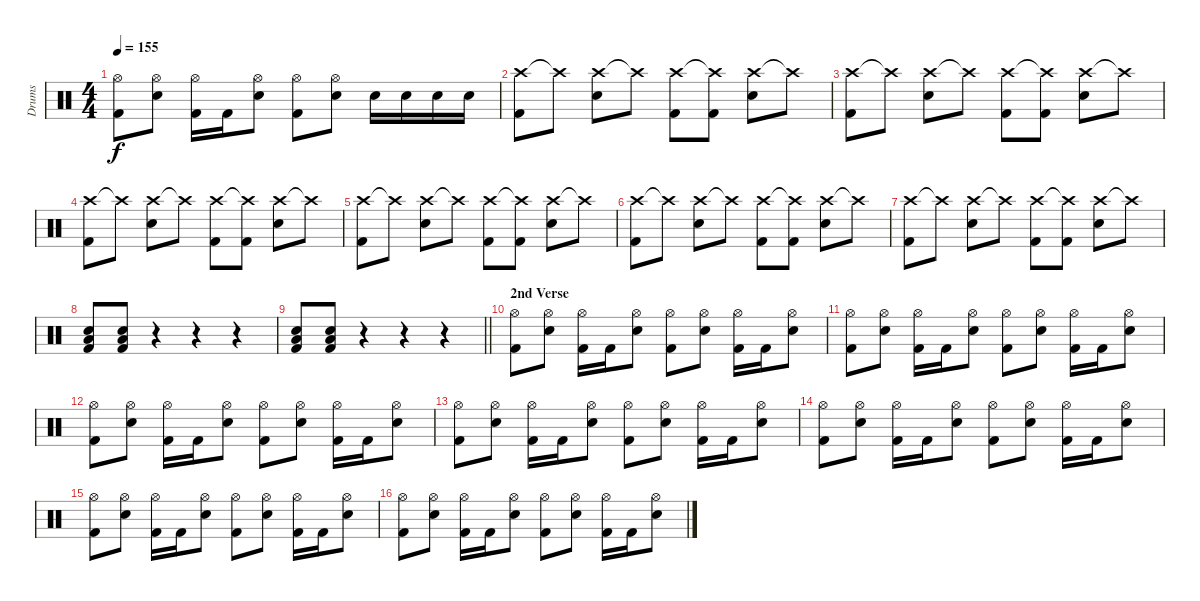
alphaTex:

\track ("Drums" "Drums") {instrument percussion}
\staff {score}
\articulation defaults
\ts (4 4)
\tempo 155
\clef neutral
\ks c
("Hi-Hat (open)" "Kick (hit) 2").8{dy f} ("Hi-Hat (open)" "Electric Snare (hit)").8 ("Hi-Hat (open)" "Kick (hit) 2").16 "Kick (hit) 2".16 ("Hi-Hat (open)" "Electric Snare (hit)").8 ("Hi-Hat (open)" "Kick (hit) 2").8 ("Hi-Hat (open)" "Electric Snare (hit)").8 "Electric Snare (hit)".16 "Electric Snare (hit)".16 "Electric Snare (hit)".16 "Electric Snare (hit)".16 |
("Crash high (hit)" "Kick (hit) 2").8 "Crash high (hit)"{t}.8 ("Crash high (hit)" "Electric Snare (hit)").8 "Crash high (hit)"{t}.8 ("Crash high (hit)" "Kick (hit) 2").8 ("Crash high (hit)"{t} "Kick (hit) 2").8 ("Crash high (hit)" "Electric Snare (hit)").8 "Crash high (hit)"{t}.8 |
("Crash high (hit)" "Kick (hit) 2").8 "Crash high (hit)"{t}.8 ("Crash high (hit)" "Electric Snare (hit)").8 "Crash high (hit)"{t}.8 ("Crash high (hit)" "Kick (hit) 2").8 ("Crash high (hit)"{t} "Kick (hit) 2").8 ("Crash high (hit)" "Electric Snare (hit)").8 "Crash high (hit)"{t}.8 |
("Crash high (hit)" "Kick (hit) 2").8 "Crash high (hit)"{t}.8 ("Crash high (hit)" "Electric Snare (hit)").8 "Crash high (hit)"{t}.8 ("Crash high (hit)" "Kick (hit) 2").8 ("Crash high (hit)"{t} "Kick (hit) 2").8 ("Crash high (hit)" "Electric Snare (hit)").8 "Crash high (hit)"{t}.8 |
("Crash high (hit)" "Kick (hit) 2").8 "Crash high (hit)"{t}.8 ("Crash high (hit)" "Electric Snare (hit)").8 "Crash high (hit)"{t}.8 ("Crash high (hit)" "Kick (hit) 2").8 ("Crash high (hit)"{t} "Kick (hit) 2").8 ("Crash high (hit)" "Electric Snare (hit)").8 "Crash high (hit)"{t}.8 |
("Crash high (hit)" "Kick (hit) 2").8 "Crash high (hit)"{t}.8 ("Crash high (hit)" "Electric Snare (hit)").8 "Crash high (hit)"{t}.8 ("Crash high (hit)" "Kick (hit) 2").8 ("Crash high (hit)"{t} "Kick (hit) 2").8 ("Crash high (hit)" "Electric Snare (hit)").8 "Crash high (hit)"{t}.8 |
("Crash high (hit)" "Kick (hit) 2").8 "Crash high (hit)"{t}.8 ("Crash high (hit)" "Electric Snare (hit)").8 "Crash high (hit)"{t}.8 ("Crash high (hit)" "Kick (hit) 2").8 ("Crash high (hit)"{t} "Kick (hit) 2").8 ("Crash high (hit)" "Electric Snare (hit)").8 "Crash high (hit)"{t}.8 |
("Low Floor Tom (hit)" "Electric Snare (hit)" "Kick (hit) 2").8 ("Low Floor Tom (hit)" "Electric Snare (hit)" "Kick (hit) 2").8 r.4 r.4 r.4 |
\barLineRight lightlight
("Low Floor Tom (hit)" "Electric Snare (hit)" "Kick (hit) 2").8 ("Low Floor Tom (hit)" "Electric Snare (hit)" "Kick (hit) 2").8 r.4 r.4 r.4 |
\section ("" "2nd Verse")
("Hi-Hat (open)" "Kick (hit) 2").8 ("Hi-Hat (open)" "Electric Snare (hit)").8 ("Hi-Hat (open)" "Kick (hit) 2").16 "Kick (hit) 2".16 ("Hi-Hat (open)" "Electric Snare (hit)").8 ("Hi-Hat (open)" "Kick (hit) 2").8 ("Hi-Hat (open)" "Electric Snare (hit)").8 ("Hi-Hat (open)" "Kick (hit) 2").16 "Kick (hit) 2".16 ("Hi-Hat (open)" "Electric Snare (hit)").8 |
("Hi-Hat (open)" "Kick (hit) 2").8 ("Hi-Hat (open)" "Electric Snare (hit)").8 ("Hi-Hat (open)" "Kick (hit) 2").16 "Kick (hit) 2".16 ("Hi-Hat (open)" "Electric Snare (hit)").8 ("Hi-Hat (open)" "Kick (hit) 2").8 ("Hi-Hat (open)" "Electric Snare (hit)").8 ("Hi-Hat (open)" "Kick (hit) 2").16 "Kick (hit) 2".16 ("Hi-Hat (open)" "Electric Snare (hit)").8 |
("Hi-Hat (open)" "Kick (hit) 2").8 ("Hi-Hat (open)" "Electric Snare (hit)").8 ("Hi-Hat (open)" "Kick (hit) 2").16 "Kick (hit) 2".16 ("Hi-Hat (open)" "Electric Snare (hit)").8 ("Hi-Hat (open)" "Kick (hit) 2").8 ("Hi-Hat (open)" "Electric Snare (hit)").8 ("Hi-Hat (open)" "Kick (hit) 2").16 "Kick (hit) 2".16 ("Hi-Hat (open)" "Electric Snare (hit)").8 |
("Hi-Hat (open)" "Kick (hit) 2").8 ("Hi-Hat (open)" "Electric Snare (hit)").8 ("Hi-Hat (open)" "Kick (hit) 2").16 "Kick (hit) 2".16 ("Hi-Hat (open)" "Electric Snare (hit)").8 ("Hi-Hat (open)" "Kick (hit) 2").8 ("Hi-Hat (open)" "Electric Snare (hit)").8 ("Hi-Hat (open)" "Kick (hit) 2").16 "Kick (hit) 2".16 ("Hi-Hat (open)" "Electric Snare (hit)").8 |
("Hi-Hat (open)" "Kick (hit) 2").8 ("Hi-Hat (open)" "Electric Snare (hit)").8 ("Hi-Hat (open)" "Kick (hit) 2").16 "Kick (hit) 2".16 ("Hi-Hat (open)" "Electric Snare (hit)").8 ("Hi-Hat (open)" "Kick (hit) 2").8 ("Hi-Hat (open)" "Electric Snare (hit)").8 ("Hi-Hat (open)" "Kick (hit) 2").16 "Kick (hit) 2".16 ("Hi-Hat (open)" "Electric Snare (hit)").8 |
("Hi-Hat (open)" "Kick (hit) 2").8 ("Hi-Hat (open)" "Electric Snare (hit)").8 ("Hi-Hat (open)" "Kick (hit) 2").16 "Kick (hit) 2".16 ("Hi-Hat (open)" "Electric Snare (hit)").8 ("Hi-Hat (open)" "Kick (hit) 2").8 ("Hi-Hat (open)" "Electric Snare (hit)").8 ("Hi-Hat (open)" "Kick (hit) 2").16 "Kick (hit) 2".16 ("Hi-Hat (open)" "Electric Snare (hit)").8 |
("Hi-Hat (open)" "Kick (hit) 2").8 ("Hi-Hat (open)" "Electric Snare (hit)").8 ("Hi-Hat (open)" "Kick (hit) 2").16 "Kick (hit) 2".16 ("Hi-Hat (open)" "Electric Snare (hit)").8 ("Hi-Hat (open)" "Kick (hit) 2").8 ("Hi-Hat (open)" "Electric Snare (hit)").8 ("Hi-Hat (open)" "Kick (hit) 2").16 "Kick (hit) 2".16 ("Hi-Hat (open)" "Electric Snare (hit)").8
